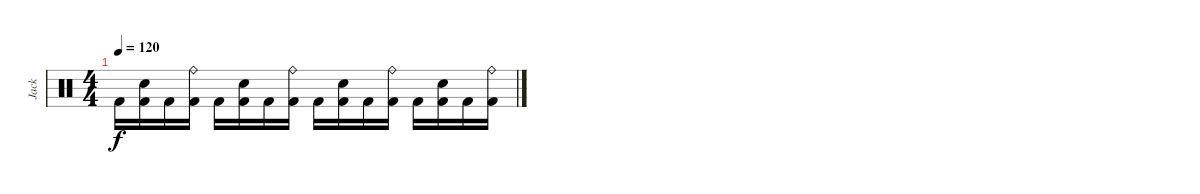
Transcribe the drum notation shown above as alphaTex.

\track ("Jack" "Jack") {instrument percussion}
\staff {score}
\articulation defaults
\ts (4 4)
\tempo 120
\clef neutral
\ks c "Kick (hit) 2".16{dy f}
("Kick (hit) 2" "Snare (hit) 2").16 "Kick (hit) 2".16 ("Kick (hit) 2" "Ride (bell)").16 "Kick (hit) 2".16 ("Kick (hit) 2" "Snare (hit) 2").16 "Kick (hit) 2".16 ("Kick (hit) 2" "Ride (bell)").16 "Kick (hit) 2".16 ("Kick (hit) 2" "Snare (hit) 2").16 "Kick (hit) 2".16 ("Kick (hit) 2" "Ride (bell)").16 "Kick (hit) 2".16 ("Kick (hit) 2" "Snare (hit) 2").16 "Kick (hit) 2".16 ("Kick (hit) 2" "Ride (bell)").16
